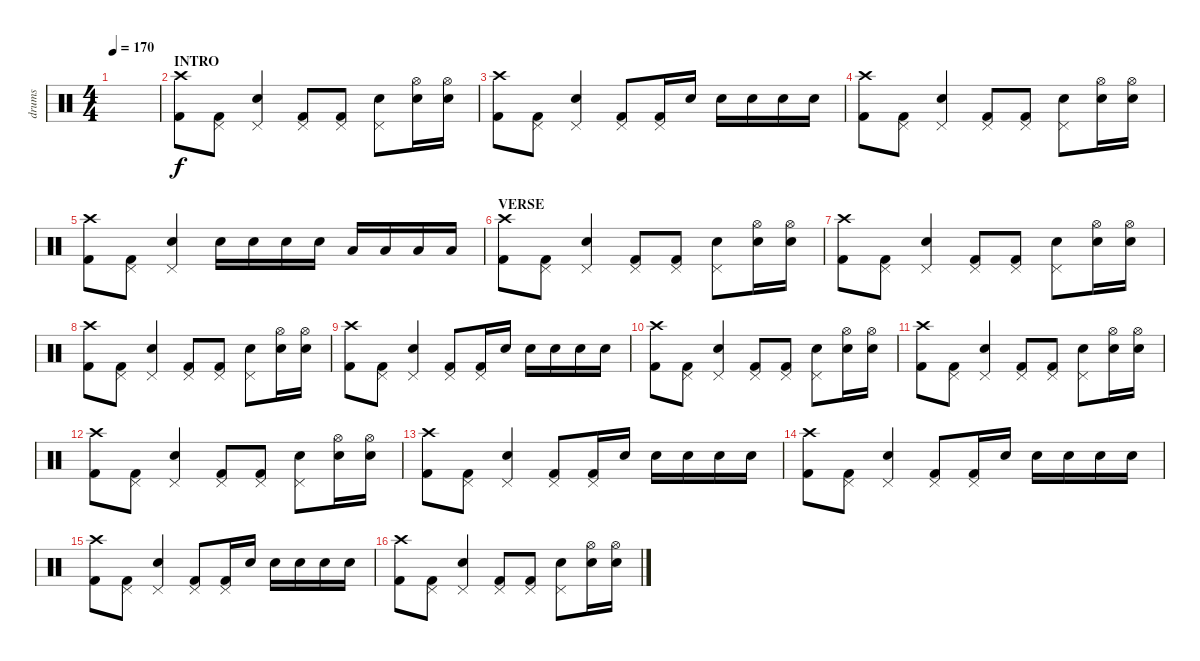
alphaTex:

\track ("drums" "drums") {instrument percussion}
\staff {score}
\articulation defaults
\ts (4 4)
\tempo 170
\clef neutral
\ks c
|
\section ("" "INTRO")
("Crash high (hit)" "Kick (hit) 2").8 ("Pedal Hi-Hat (hit)" "Kick (hit) 2").8 ("Pedal Hi-Hat (hit)" "Electric Snare (hit)").4 ("Pedal Hi-Hat (hit)" "Kick (hit) 2").8 ("Pedal Hi-Hat (hit)" "Kick (hit) 2").8 ("Pedal Hi-Hat (hit)" "Electric Snare (hit)").8 ("Hi-Hat (open)" "Electric Snare (hit)").16 ("Hi-Hat (open)" "Electric Snare (hit)").16 |
("Crash high (hit)" "Kick (hit) 2").8 ("Pedal Hi-Hat (hit)" "Kick (hit) 2").8 ("Pedal Hi-Hat (hit)" "Electric Snare (hit)").4 ("Pedal Hi-Hat (hit)" "Kick (hit) 2").8 ("Pedal Hi-Hat (hit)" "Kick (hit) 2").16 "Electric Snare (hit)".16 "Electric Snare (hit)".16 "Electric Snare (hit)".16 "Electric Snare (hit)".16 "Electric Snare (hit)".16 |
("Crash high (hit)" "Kick (hit) 2").8 ("Pedal Hi-Hat (hit)" "Kick (hit) 2").8 ("Pedal Hi-Hat (hit)" "Electric Snare (hit)").4 ("Pedal Hi-Hat (hit)" "Kick (hit) 2").8 ("Pedal Hi-Hat (hit)" "Kick (hit) 2").8 ("Pedal Hi-Hat (hit)" "Electric Snare (hit)").8 ("Hi-Hat (open)" "Electric Snare (hit)").16 ("Hi-Hat (open)" "Electric Snare (hit)").16 |
("Crash high (hit)" "Kick (hit) 2").8 ("Pedal Hi-Hat (hit)" "Kick (hit) 2").8 ("Pedal Hi-Hat (hit)" "Electric Snare (hit)").4 "Electric Snare (hit)".16 "Electric Snare (hit)".16 "Electric Snare (hit)".16 "Electric Snare (hit)".16 "Low Tom (hit)".16 "Low Tom (hit)".16 "Low Tom (hit)".16 "Low Tom (hit)".16 |
\section ("" "VERSE")
("Crash high (hit)" "Kick (hit) 2").8 ("Pedal Hi-Hat (hit)" "Kick (hit) 2").8 ("Pedal Hi-Hat (hit)" "Electric Snare (hit)").4 ("Pedal Hi-Hat (hit)" "Kick (hit) 2").8 ("Pedal Hi-Hat (hit)" "Kick (hit) 2").8 ("Pedal Hi-Hat (hit)" "Electric Snare (hit)").8 ("Hi-Hat (open)" "Electric Snare (hit)").16 ("Hi-Hat (open)" "Electric Snare (hit)").16 |
("Crash high (hit)" "Kick (hit) 2").8 ("Pedal Hi-Hat (hit)" "Kick (hit) 2").8 ("Pedal Hi-Hat (hit)" "Electric Snare (hit)").4 ("Pedal Hi-Hat (hit)" "Kick (hit) 2").8 ("Pedal Hi-Hat (hit)" "Kick (hit) 2").8 ("Pedal Hi-Hat (hit)" "Electric Snare (hit)").8 ("Hi-Hat (open)" "Electric Snare (hit)").16 ("Hi-Hat (open)" "Electric Snare (hit)").16 |
("Crash high (hit)" "Kick (hit) 2").8 ("Pedal Hi-Hat (hit)" "Kick (hit) 2").8 ("Pedal Hi-Hat (hit)" "Electric Snare (hit)").4 ("Pedal Hi-Hat (hit)" "Kick (hit) 2").8 ("Pedal Hi-Hat (hit)" "Kick (hit) 2").8 ("Pedal Hi-Hat (hit)" "Electric Snare (hit)").8 ("Hi-Hat (open)" "Electric Snare (hit)").16 ("Hi-Hat (open)" "Electric Snare (hit)").16 |
("Crash high (hit)" "Kick (hit) 2").8 ("Pedal Hi-Hat (hit)" "Kick (hit) 2").8 ("Pedal Hi-Hat (hit)" "Electric Snare (hit)").4 ("Pedal Hi-Hat (hit)" "Kick (hit) 2").8 ("Pedal Hi-Hat (hit)" "Kick (hit) 2").16 "Electric Snare (hit)".16 "Electric Snare (hit)".16 "Electric Snare (hit)".16 "Electric Snare (hit)".16 "Electric Snare (hit)".16 |
("Crash high (hit)" "Kick (hit) 2").8 ("Pedal Hi-Hat (hit)" "Kick (hit) 2").8 ("Pedal Hi-Hat (hit)" "Electric Snare (hit)").4 ("Pedal Hi-Hat (hit)" "Kick (hit) 2").8 ("Pedal Hi-Hat (hit)" "Kick (hit) 2").8 ("Pedal Hi-Hat (hit)" "Electric Snare (hit)").8 ("Hi-Hat (open)" "Electric Snare (hit)").16 ("Hi-Hat (open)" "Electric Snare (hit)").16 |
("Crash high (hit)" "Kick (hit) 2").8 ("Pedal Hi-Hat (hit)" "Kick (hit) 2").8 ("Pedal Hi-Hat (hit)" "Electric Snare (hit)").4 ("Pedal Hi-Hat (hit)" "Kick (hit) 2").8 ("Pedal Hi-Hat (hit)" "Kick (hit) 2").8 ("Pedal Hi-Hat (hit)" "Electric Snare (hit)").8 ("Hi-Hat (open)" "Electric Snare (hit)").16 ("Hi-Hat (open)" "Electric Snare (hit)").16 |
("Crash high (hit)" "Kick (hit) 2").8 ("Pedal Hi-Hat (hit)" "Kick (hit) 2").8 ("Pedal Hi-Hat (hit)" "Electric Snare (hit)").4 ("Pedal Hi-Hat (hit)" "Kick (hit) 2").8 ("Pedal Hi-Hat (hit)" "Kick (hit) 2").8 ("Pedal Hi-Hat (hit)" "Electric Snare (hit)").8 ("Hi-Hat (open)" "Electric Snare (hit)").16 ("Hi-Hat (open)" "Electric Snare (hit)").16 |
("Crash high (hit)" "Kick (hit) 2").8 ("Pedal Hi-Hat (hit)" "Kick (hit) 2").8 ("Pedal Hi-Hat (hit)" "Electric Snare (hit)").4 ("Pedal Hi-Hat (hit)" "Kick (hit) 2").8 ("Pedal Hi-Hat (hit)" "Kick (hit) 2").16 "Electric Snare (hit)".16 "Electric Snare (hit)".16 "Electric Snare (hit)".16 "Electric Snare (hit)".16 "Electric Snare (hit)".16 |
("Crash high (hit)" "Kick (hit) 2").8 ("Pedal Hi-Hat (hit)" "Kick (hit) 2").8 ("Pedal Hi-Hat (hit)" "Electric Snare (hit)").4 ("Pedal Hi-Hat (hit)" "Kick (hit) 2").8 ("Pedal Hi-Hat (hit)" "Kick (hit) 2").16 "Electric Snare (hit)".16 "Electric Snare (hit)".16 "Electric Snare (hit)".16 "Electric Snare (hit)".16 "Electric Snare (hit)".16 |
("Crash high (hit)" "Kick (hit) 2").8 ("Pedal Hi-Hat (hit)" "Kick (hit) 2").8 ("Pedal Hi-Hat (hit)" "Electric Snare (hit)").4 ("Pedal Hi-Hat (hit)" "Kick (hit) 2").8 ("Pedal Hi-Hat (hit)" "Kick (hit) 2").16 "Electric Snare (hit)".16 "Electric Snare (hit)".16 "Electric Snare (hit)".16 "Electric Snare (hit)".16 "Electric Snare (hit)".16 |
("Crash high (hit)" "Kick (hit) 2").8 ("Pedal Hi-Hat (hit)" "Kick (hit) 2").8 ("Pedal Hi-Hat (hit)" "Electric Snare (hit)").4 ("Pedal Hi-Hat (hit)" "Kick (hit) 2").8 ("Pedal Hi-Hat (hit)" "Kick (hit) 2").8 ("Pedal Hi-Hat (hit)" "Electric Snare (hit)").8 ("Hi-Hat (open)" "Electric Snare (hit)").16 ("Hi-Hat (open)" "Electric Snare (hit)").16
